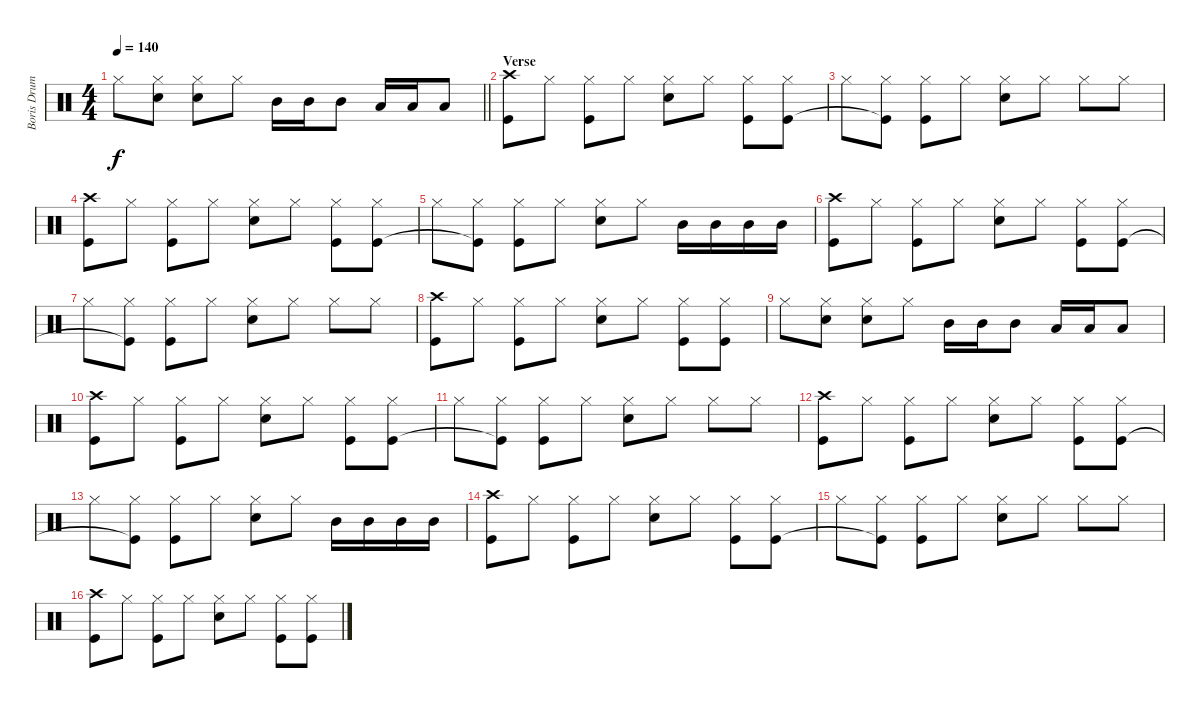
\track ("Boris Drums" "Boris Drum") {instrument percussion}
\staff {score}
\articulation defaults
\ts (4 4)
\tempo 140
\clef neutral
\barLineRight lightlight
\ks c "Hi-Hat (closed)".8{dy f}
("Hi-Hat (closed)" "Electric Snare (hit)").8 ("Hi-Hat (closed)" "Electric Snare (hit)").8 "Hi-Hat (closed)".8 "Mid Tom (hit)".16 "Mid Tom (hit)".16 "Mid Tom (hit)".8 "Low Tom (hit)".16 "Low Tom (hit)".16 "Low Tom (hit)".8 |
\section ("" "Verse")
("Crash high (hit)" "Kick (hit)").8 "Hi-Hat (closed)".8 ("Hi-Hat (closed)" "Kick (hit)").8 "Hi-Hat (closed)".8 ("Hi-Hat (closed)" "Electric Snare (hit)").8 "Hi-Hat (closed)".8 ("Hi-Hat (closed)" "Kick (hit)").8 ("Hi-Hat (closed)" "Kick (hit)").8 |
"Hi-Hat (closed)".8 ("Hi-Hat (closed)" "Kick (hit)"{t}).8 ("Hi-Hat (closed)" "Kick (hit)").8 "Hi-Hat (closed)".8 ("Hi-Hat (closed)" "Electric Snare (hit)").8 "Hi-Hat (closed)".8 "Hi-Hat (closed)".8 "Hi-Hat (closed)".8 |
("Crash high (hit)" "Kick (hit)").8 "Hi-Hat (closed)".8 ("Hi-Hat (closed)" "Kick (hit)").8 "Hi-Hat (closed)".8 ("Hi-Hat (closed)" "Electric Snare (hit)").8 "Hi-Hat (closed)".8 ("Hi-Hat (closed)" "Kick (hit)").8 ("Hi-Hat (closed)" "Kick (hit)").8 |
"Hi-Hat (closed)".8 ("Hi-Hat (closed)" "Kick (hit)"{t}).8 ("Hi-Hat (closed)" "Kick (hit)").8 "Hi-Hat (closed)".8 ("Hi-Hat (closed)" "Electric Snare (hit)").8 "Hi-Hat (closed)".8 "Mid Tom (hit)".16 "Mid Tom (hit)".16 "Mid Tom (hit)".16 "Mid Tom (hit)".16 |
("Crash high (hit)" "Kick (hit)").8 "Hi-Hat (closed)".8 ("Hi-Hat (closed)" "Kick (hit)").8 "Hi-Hat (closed)".8 ("Hi-Hat (closed)" "Electric Snare (hit)").8 "Hi-Hat (closed)".8 ("Hi-Hat (closed)" "Kick (hit)").8 ("Hi-Hat (closed)" "Kick (hit)").8 |
"Hi-Hat (closed)".8 ("Hi-Hat (closed)" "Kick (hit)"{t}).8 ("Hi-Hat (closed)" "Kick (hit)").8 "Hi-Hat (closed)".8 ("Hi-Hat (closed)" "Electric Snare (hit)").8 "Hi-Hat (closed)".8 "Hi-Hat (closed)".8 "Hi-Hat (closed)".8 |
("Crash high (hit)" "Kick (hit)").8 "Hi-Hat (closed)".8 ("Hi-Hat (closed)" "Kick (hit)").8 "Hi-Hat (closed)".8 ("Hi-Hat (closed)" "Electric Snare (hit)").8 "Hi-Hat (closed)".8 ("Hi-Hat (closed)" "Kick (hit)").8 ("Hi-Hat (closed)" "Kick (hit)").8 |
"Hi-Hat (closed)".8 ("Hi-Hat (closed)" "Electric Snare (hit)").8 ("Hi-Hat (closed)" "Electric Snare (hit)").8 "Hi-Hat (closed)".8 "Mid Tom (hit)".16 "Mid Tom (hit)".16 "Mid Tom (hit)".8 "Low Tom (hit)".16 "Low Tom (hit)".16 "Low Tom (hit)".8 |
("Crash high (hit)" "Kick (hit)").8 "Hi-Hat (closed)".8 ("Hi-Hat (closed)" "Kick (hit)").8 "Hi-Hat (closed)".8 ("Hi-Hat (closed)" "Electric Snare (hit)").8 "Hi-Hat (closed)".8 ("Hi-Hat (closed)" "Kick (hit)").8 ("Hi-Hat (closed)" "Kick (hit)").8 |
"Hi-Hat (closed)".8 ("Hi-Hat (closed)" "Kick (hit)"{t}).8 ("Hi-Hat (closed)" "Kick (hit)").8 "Hi-Hat (closed)".8 ("Hi-Hat (closed)" "Electric Snare (hit)").8 "Hi-Hat (closed)".8 "Hi-Hat (closed)".8 "Hi-Hat (closed)".8 |
("Crash high (hit)" "Kick (hit)").8 "Hi-Hat (closed)".8 ("Hi-Hat (closed)" "Kick (hit)").8 "Hi-Hat (closed)".8 ("Hi-Hat (closed)" "Electric Snare (hit)").8 "Hi-Hat (closed)".8 ("Hi-Hat (closed)" "Kick (hit)").8 ("Hi-Hat (closed)" "Kick (hit)").8 |
"Hi-Hat (closed)".8 ("Hi-Hat (closed)" "Kick (hit)"{t}).8 ("Hi-Hat (closed)" "Kick (hit)").8 "Hi-Hat (closed)".8 ("Hi-Hat (closed)" "Electric Snare (hit)").8 "Hi-Hat (closed)".8 "Mid Tom (hit)".16 "Mid Tom (hit)".16 "Mid Tom (hit)".16 "Mid Tom (hit)".16 |
("Crash high (hit)" "Kick (hit)").8 "Hi-Hat (closed)".8 ("Hi-Hat (closed)" "Kick (hit)").8 "Hi-Hat (closed)".8 ("Hi-Hat (closed)" "Electric Snare (hit)").8 "Hi-Hat (closed)".8 ("Hi-Hat (closed)" "Kick (hit)").8 ("Hi-Hat (closed)" "Kick (hit)").8 |
"Hi-Hat (closed)".8 ("Hi-Hat (closed)" "Kick (hit)"{t}).8 ("Hi-Hat (closed)" "Kick (hit)").8 "Hi-Hat (closed)".8 ("Hi-Hat (closed)" "Electric Snare (hit)").8 "Hi-Hat (closed)".8 "Hi-Hat (closed)".8 "Hi-Hat (closed)".8 |
("Crash high (hit)" "Kick (hit)").8 "Hi-Hat (closed)".8 ("Hi-Hat (closed)" "Kick (hit)").8 "Hi-Hat (closed)".8 ("Hi-Hat (closed)" "Electric Snare (hit)").8 "Hi-Hat (closed)".8 ("Hi-Hat (closed)" "Kick (hit)").8 ("Hi-Hat (closed)" "Kick (hit)").8
